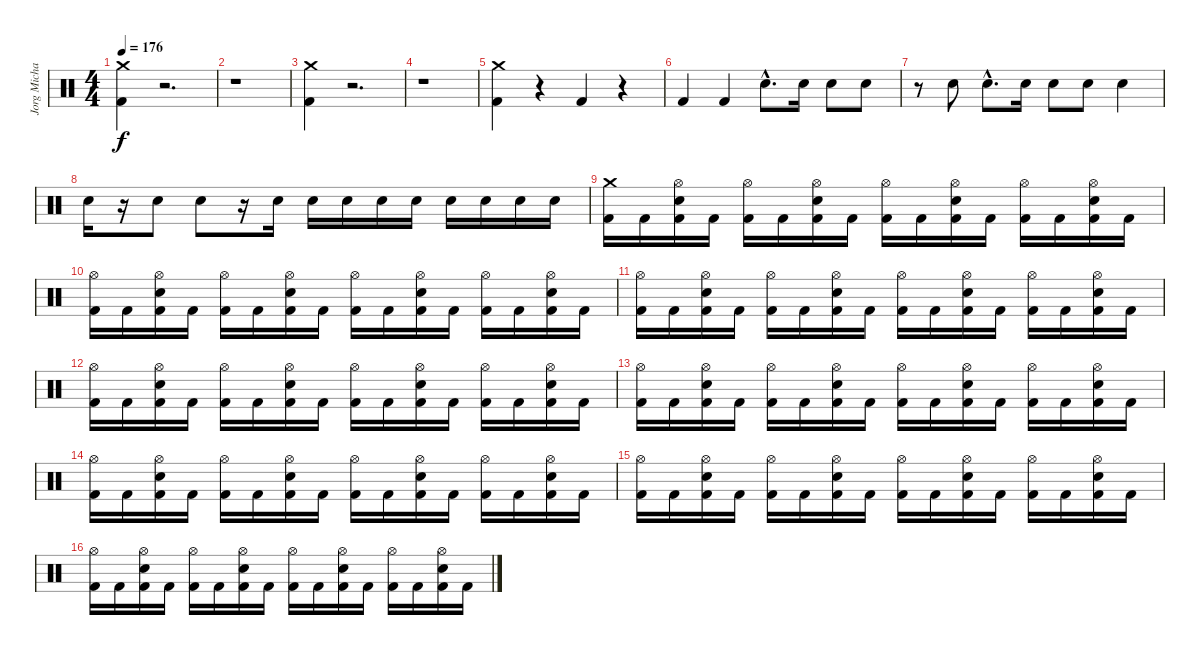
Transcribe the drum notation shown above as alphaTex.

\track ("Jorg Michael" "Jorg Micha") {instrument percussion}
\staff {score}
\articulation defaults
\ts (4 4)
\tempo 176
\clef neutral
\ks c
("Kick (hit) 2" "Crash medium (hit)").4{dy f} r.2{d} |
r.1 |
("Crash medium (hit)" "Kick (hit) 2").4 r.2{d} |
r.1 |
("Kick (hit) 2" "Crash medium (hit)").4 r.4 "Kick (hit) 2".4 r.4 |
"Kick (hit) 2".4 "Kick (hit) 2".4 "Snare (hit) 2"{hac}.8{d} "Snare (hit) 2".16 "Snare (hit) 2".8 "Snare (hit) 2".8 |
r.8 "Snare (hit) 2".8 "Snare (hit) 2"{hac}.8{d} "Snare (hit) 2".16 "Snare (hit) 2".8 "Snare (hit) 2".8 "Snare (hit) 2".4 |
"Snare (hit) 2".16 r.16 "Snare (hit) 2".8 "Snare (hit) 2".8 r.16 "Snare (hit) 2".16 "Snare (hit) 2".16 "Snare (hit) 2".16 "Snare (hit) 2".16 "Snare (hit) 2".16 "Snare (hit) 2".16 "Snare (hit) 2".16 "Snare (hit) 2".16 "Snare (hit) 2".16 |
("Crash medium (hit)" "Kick (hit) 2").16 "Kick (hit) 2".16 ("Snare (hit) 2" "Hi-Hat (open)" "Kick (hit) 2").16 "Kick (hit) 2".16 ("Hi-Hat (open)" "Kick (hit) 2").16 "Kick (hit) 2".16 ("Snare (hit) 2" "Hi-Hat (open)" "Kick (hit) 2").16 "Kick (hit) 2".16 ("Hi-Hat (open)" "Kick (hit) 2").16 "Kick (hit) 2".16 ("Snare (hit) 2" "Hi-Hat (open)" "Kick (hit) 2").16 "Kick (hit) 2".16 ("Hi-Hat (open)" "Kick (hit) 2").16 "Kick (hit) 2".16 ("Snare (hit) 2" "Hi-Hat (open)" "Kick (hit) 2").16 "Kick (hit) 2".16 |
("Hi-Hat (open)" "Kick (hit) 2").16 "Kick (hit) 2".16 ("Snare (hit) 2" "Hi-Hat (open)" "Kick (hit) 2").16 "Kick (hit) 2".16 ("Hi-Hat (open)" "Kick (hit) 2").16 "Kick (hit) 2".16 ("Snare (hit) 2" "Hi-Hat (open)" "Kick (hit) 2").16 "Kick (hit) 2".16 ("Hi-Hat (open)" "Kick (hit) 2").16 "Kick (hit) 2".16 ("Snare (hit) 2" "Hi-Hat (open)" "Kick (hit) 2").16 "Kick (hit) 2".16 ("Hi-Hat (open)" "Kick (hit) 2").16 "Kick (hit) 2".16 ("Snare (hit) 2" "Hi-Hat (open)" "Kick (hit) 2").16 "Kick (hit) 2".16 |
("Hi-Hat (open)" "Kick (hit) 2").16 "Kick (hit) 2".16 ("Snare (hit) 2" "Hi-Hat (open)" "Kick (hit) 2").16 "Kick (hit) 2".16 ("Hi-Hat (open)" "Kick (hit) 2").16 "Kick (hit) 2".16 ("Snare (hit) 2" "Hi-Hat (open)" "Kick (hit) 2").16 "Kick (hit) 2".16 ("Hi-Hat (open)" "Kick (hit) 2").16 "Kick (hit) 2".16 ("Snare (hit) 2" "Hi-Hat (open)" "Kick (hit) 2").16 "Kick (hit) 2".16 ("Hi-Hat (open)" "Kick (hit) 2").16 "Kick (hit) 2".16 ("Snare (hit) 2" "Hi-Hat (open)" "Kick (hit) 2").16 "Kick (hit) 2".16 |
("Hi-Hat (open)" "Kick (hit) 2").16 "Kick (hit) 2".16 ("Snare (hit) 2" "Hi-Hat (open)" "Kick (hit) 2").16 "Kick (hit) 2".16 ("Hi-Hat (open)" "Kick (hit) 2").16 "Kick (hit) 2".16 ("Snare (hit) 2" "Hi-Hat (open)" "Kick (hit) 2").16 "Kick (hit) 2".16 ("Hi-Hat (open)" "Kick (hit) 2").16 "Kick (hit) 2".16 ("Snare (hit) 2" "Hi-Hat (open)" "Kick (hit) 2").16 "Kick (hit) 2".16 ("Hi-Hat (open)" "Kick (hit) 2").16 "Kick (hit) 2".16 ("Snare (hit) 2" "Hi-Hat (open)" "Kick (hit) 2").16 "Kick (hit) 2".16 |
("Hi-Hat (open)" "Kick (hit) 2").16 "Kick (hit) 2".16 ("Snare (hit) 2" "Hi-Hat (open)" "Kick (hit) 2").16 "Kick (hit) 2".16 ("Hi-Hat (open)" "Kick (hit) 2").16 "Kick (hit) 2".16 ("Snare (hit) 2" "Hi-Hat (open)" "Kick (hit) 2").16 "Kick (hit) 2".16 ("Hi-Hat (open)" "Kick (hit) 2").16 "Kick (hit) 2".16 ("Snare (hit) 2" "Hi-Hat (open)" "Kick (hit) 2").16 "Kick (hit) 2".16 ("Hi-Hat (open)" "Kick (hit) 2").16 "Kick (hit) 2".16 ("Snare (hit) 2" "Hi-Hat (open)" "Kick (hit) 2").16 "Kick (hit) 2".16 |
("Hi-Hat (open)" "Kick (hit) 2").16 "Kick (hit) 2".16 ("Snare (hit) 2" "Hi-Hat (open)" "Kick (hit) 2").16 "Kick (hit) 2".16 ("Hi-Hat (open)" "Kick (hit) 2").16 "Kick (hit) 2".16 ("Snare (hit) 2" "Hi-Hat (open)" "Kick (hit) 2").16 "Kick (hit) 2".16 ("Hi-Hat (open)" "Kick (hit) 2").16 "Kick (hit) 2".16 ("Snare (hit) 2" "Hi-Hat (open)" "Kick (hit) 2").16 "Kick (hit) 2".16 ("Hi-Hat (open)" "Kick (hit) 2").16 "Kick (hit) 2".16 ("Snare (hit) 2" "Hi-Hat (open)" "Kick (hit) 2").16 "Kick (hit) 2".16 |
("Hi-Hat (open)" "Kick (hit) 2").16 "Kick (hit) 2".16 ("Snare (hit) 2" "Hi-Hat (open)" "Kick (hit) 2").16 "Kick (hit) 2".16 ("Hi-Hat (open)" "Kick (hit) 2").16 "Kick (hit) 2".16 ("Snare (hit) 2" "Hi-Hat (open)" "Kick (hit) 2").16 "Kick (hit) 2".16 ("Hi-Hat (open)" "Kick (hit) 2").16 "Kick (hit) 2".16 ("Snare (hit) 2" "Hi-Hat (open)" "Kick (hit) 2").16 "Kick (hit) 2".16 ("Hi-Hat (open)" "Kick (hit) 2").16 "Kick (hit) 2".16 ("Snare (hit) 2" "Hi-Hat (open)" "Kick (hit) 2").16 "Kick (hit) 2".16 |
("Hi-Hat (open)" "Kick (hit) 2").16 "Kick (hit) 2".16 ("Snare (hit) 2" "Hi-Hat (open)" "Kick (hit) 2").16 "Kick (hit) 2".16 ("Hi-Hat (open)" "Kick (hit) 2").16 "Kick (hit) 2".16 ("Snare (hit) 2" "Hi-Hat (open)" "Kick (hit) 2").16 "Kick (hit) 2".16 ("Hi-Hat (open)" "Kick (hit) 2").16 "Kick (hit) 2".16 ("Snare (hit) 2" "Hi-Hat (open)" "Kick (hit) 2").16 "Kick (hit) 2".16 ("Hi-Hat (open)" "Kick (hit) 2").16 "Kick (hit) 2".16 ("Snare (hit) 2" "Hi-Hat (open)" "Kick (hit) 2").16 "Kick (hit) 2".16
